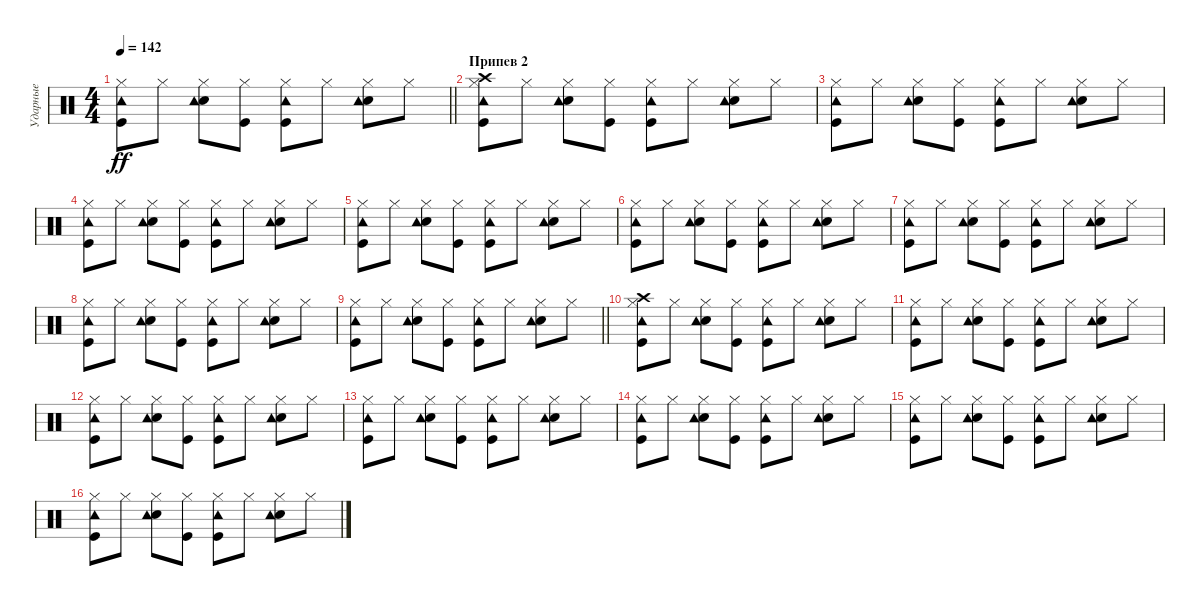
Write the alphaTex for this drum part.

\track ("Ударные" "Ударные") {instrument percussion}
\staff {score}
\articulation defaults
\ts (4 4)
\tempo 142
\clef neutral
\barLineRight lightlight
\ks c
("Hi-Hat (closed)" "Kick (hit)" "Tambourine (hit)").8{dy ff} "Hi-Hat (closed)".8 ("Hi-Hat (closed)" "Electric Snare (hit)" "Tambourine (hit)").8 ("Hi-Hat (closed)" "Kick (hit)").8 ("Hi-Hat (closed)" "Tambourine (hit)" "Kick (hit)").8 "Hi-Hat (closed)".8 ("Hi-Hat (closed)" "Electric Snare (hit)" "Tambourine (hit)").8 "Hi-Hat (closed)".8 |
\section ("" "Припев 2")
("Crash high (hit)" "Hi-Hat (closed)" "Kick (hit)" "Tambourine (hit)").8 "Hi-Hat (closed)".8 ("Hi-Hat (closed)" "Electric Snare (hit)" "Tambourine (hit)").8 ("Hi-Hat (closed)" "Kick (hit)").8 ("Hi-Hat (closed)" "Tambourine (hit)" "Kick (hit)").8 "Hi-Hat (closed)".8 ("Hi-Hat (closed)" "Electric Snare (hit)" "Tambourine (hit)").8 "Hi-Hat (closed)".8 |
("Hi-Hat (closed)" "Kick (hit)" "Tambourine (hit)").8 "Hi-Hat (closed)".8 ("Hi-Hat (closed)" "Electric Snare (hit)" "Tambourine (hit)").8 ("Hi-Hat (closed)" "Kick (hit)").8 ("Hi-Hat (closed)" "Tambourine (hit)" "Kick (hit)").8 "Hi-Hat (closed)".8 ("Hi-Hat (closed)" "Electric Snare (hit)" "Tambourine (hit)").8 "Hi-Hat (closed)".8 |
("Hi-Hat (closed)" "Kick (hit)" "Tambourine (hit)").8 "Hi-Hat (closed)".8 ("Hi-Hat (closed)" "Electric Snare (hit)" "Tambourine (hit)").8 ("Hi-Hat (closed)" "Kick (hit)").8 ("Hi-Hat (closed)" "Tambourine (hit)" "Kick (hit)").8 "Hi-Hat (closed)".8 ("Hi-Hat (closed)" "Electric Snare (hit)" "Tambourine (hit)").8 "Hi-Hat (closed)".8 |
("Hi-Hat (closed)" "Kick (hit)" "Tambourine (hit)").8 "Hi-Hat (closed)".8 ("Hi-Hat (closed)" "Electric Snare (hit)" "Tambourine (hit)").8 ("Hi-Hat (closed)" "Kick (hit)").8 ("Hi-Hat (closed)" "Tambourine (hit)" "Kick (hit)").8 "Hi-Hat (closed)".8 ("Hi-Hat (closed)" "Electric Snare (hit)" "Tambourine (hit)").8 "Hi-Hat (closed)".8 |
("Hi-Hat (closed)" "Kick (hit)" "Tambourine (hit)").8 "Hi-Hat (closed)".8 ("Hi-Hat (closed)" "Electric Snare (hit)" "Tambourine (hit)").8 ("Hi-Hat (closed)" "Kick (hit)").8 ("Hi-Hat (closed)" "Tambourine (hit)" "Kick (hit)").8 "Hi-Hat (closed)".8 ("Hi-Hat (closed)" "Electric Snare (hit)" "Tambourine (hit)").8 "Hi-Hat (closed)".8 |
("Hi-Hat (closed)" "Kick (hit)" "Tambourine (hit)").8 "Hi-Hat (closed)".8 ("Hi-Hat (closed)" "Electric Snare (hit)" "Tambourine (hit)").8 ("Hi-Hat (closed)" "Kick (hit)").8 ("Hi-Hat (closed)" "Tambourine (hit)" "Kick (hit)").8 "Hi-Hat (closed)".8 ("Hi-Hat (closed)" "Electric Snare (hit)" "Tambourine (hit)").8 "Hi-Hat (closed)".8 |
("Hi-Hat (closed)" "Kick (hit)" "Tambourine (hit)").8 "Hi-Hat (closed)".8 ("Hi-Hat (closed)" "Electric Snare (hit)" "Tambourine (hit)").8 ("Hi-Hat (closed)" "Kick (hit)").8 ("Hi-Hat (closed)" "Tambourine (hit)" "Kick (hit)").8 "Hi-Hat (closed)".8 ("Hi-Hat (closed)" "Electric Snare (hit)" "Tambourine (hit)").8 "Hi-Hat (closed)".8 |
\barLineRight lightlight
("Hi-Hat (closed)" "Kick (hit)" "Tambourine (hit)").8 "Hi-Hat (closed)".8 ("Hi-Hat (closed)" "Electric Snare (hit)" "Tambourine (hit)").8 ("Hi-Hat (closed)" "Kick (hit)").8 ("Hi-Hat (closed)" "Tambourine (hit)" "Kick (hit)").8 "Hi-Hat (closed)".8 ("Hi-Hat (closed)" "Electric Snare (hit)" "Tambourine (hit)").8 "Hi-Hat (closed)".8 |
("Crash high (hit)" "Hi-Hat (closed)" "Kick (hit)" "Tambourine (hit)").8 "Hi-Hat (closed)".8 ("Hi-Hat (closed)" "Electric Snare (hit)" "Tambourine (hit)").8 ("Hi-Hat (closed)" "Kick (hit)").8 ("Hi-Hat (closed)" "Tambourine (hit)" "Kick (hit)").8 "Hi-Hat (closed)".8 ("Hi-Hat (closed)" "Electric Snare (hit)" "Tambourine (hit)").8 "Hi-Hat (closed)".8 |
("Hi-Hat (closed)" "Kick (hit)" "Tambourine (hit)").8 "Hi-Hat (closed)".8 ("Hi-Hat (closed)" "Electric Snare (hit)" "Tambourine (hit)").8 ("Hi-Hat (closed)" "Kick (hit)").8 ("Hi-Hat (closed)" "Tambourine (hit)" "Kick (hit)").8 "Hi-Hat (closed)".8 ("Hi-Hat (closed)" "Electric Snare (hit)" "Tambourine (hit)").8 "Hi-Hat (closed)".8 |
("Hi-Hat (closed)" "Kick (hit)" "Tambourine (hit)").8 "Hi-Hat (closed)".8 ("Hi-Hat (closed)" "Electric Snare (hit)" "Tambourine (hit)").8 ("Hi-Hat (closed)" "Kick (hit)").8 ("Hi-Hat (closed)" "Tambourine (hit)" "Kick (hit)").8 "Hi-Hat (closed)".8 ("Hi-Hat (closed)" "Electric Snare (hit)" "Tambourine (hit)").8 "Hi-Hat (closed)".8 |
("Hi-Hat (closed)" "Kick (hit)" "Tambourine (hit)").8 "Hi-Hat (closed)".8 ("Hi-Hat (closed)" "Electric Snare (hit)" "Tambourine (hit)").8 ("Hi-Hat (closed)" "Kick (hit)").8 ("Hi-Hat (closed)" "Tambourine (hit)" "Kick (hit)").8 "Hi-Hat (closed)".8 ("Hi-Hat (closed)" "Electric Snare (hit)" "Tambourine (hit)").8 "Hi-Hat (closed)".8 |
("Hi-Hat (closed)" "Kick (hit)" "Tambourine (hit)").8 "Hi-Hat (closed)".8 ("Hi-Hat (closed)" "Electric Snare (hit)" "Tambourine (hit)").8 ("Hi-Hat (closed)" "Kick (hit)").8 ("Hi-Hat (closed)" "Tambourine (hit)" "Kick (hit)").8 "Hi-Hat (closed)".8 ("Hi-Hat (closed)" "Electric Snare (hit)" "Tambourine (hit)").8 "Hi-Hat (closed)".8 |
("Hi-Hat (closed)" "Kick (hit)" "Tambourine (hit)").8 "Hi-Hat (closed)".8 ("Hi-Hat (closed)" "Electric Snare (hit)" "Tambourine (hit)").8 ("Hi-Hat (closed)" "Kick (hit)").8 ("Hi-Hat (closed)" "Tambourine (hit)" "Kick (hit)").8 "Hi-Hat (closed)".8 ("Hi-Hat (closed)" "Electric Snare (hit)" "Tambourine (hit)").8 "Hi-Hat (closed)".8 |
("Hi-Hat (closed)" "Kick (hit)" "Tambourine (hit)").8 "Hi-Hat (closed)".8 ("Hi-Hat (closed)" "Electric Snare (hit)" "Tambourine (hit)").8 ("Hi-Hat (closed)" "Kick (hit)").8 ("Hi-Hat (closed)" "Tambourine (hit)" "Kick (hit)").8 "Hi-Hat (closed)".8 ("Hi-Hat (closed)" "Electric Snare (hit)" "Tambourine (hit)").8 "Hi-Hat (closed)".8
